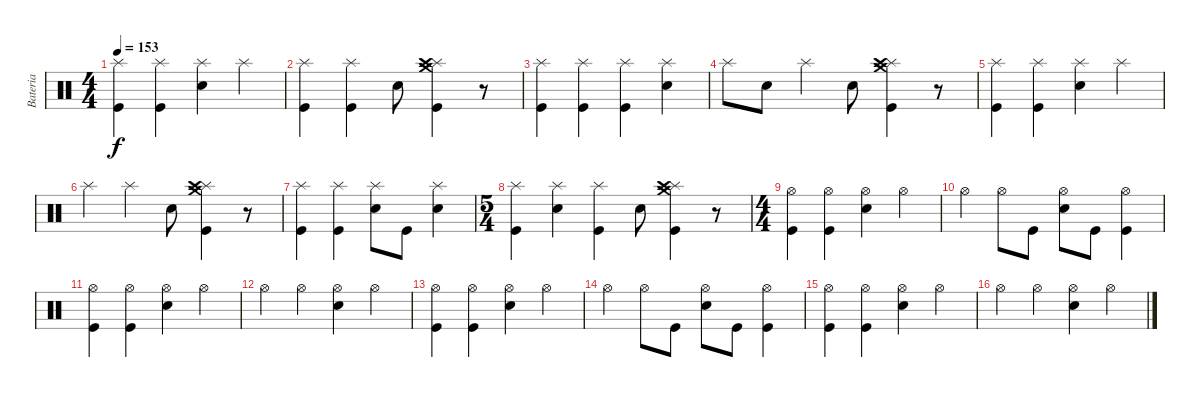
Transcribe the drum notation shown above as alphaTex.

\track ("Bateria" "Bateria") {instrument percussion}
\staff {score}
\articulation defaults
\ts (4 4)
\tempo 153
\clef neutral
\ks c
("Kick (hit)" "Splash (hit)").4{dy f} ("Kick (hit)" "Splash (hit)").4 ("Snare (hit) 2" "Splash (hit)").4 "Splash (hit)".4 |
("Splash (hit)" "Kick (hit)").4 ("Splash (hit)" "Kick (hit)").4 "Snare (hit) 2".8 ("Crash medium (hit)" "Splash (hit)" "Crash high (hit)" "Kick (hit)").4 r.8 |
("Kick (hit)" "Splash (hit)").4 ("Kick (hit)" "Splash (hit)").4 ("Kick (hit)" "Splash (hit)").4 ("Splash (hit)" "Snare (hit) 2").4 |
"Splash (hit)".8 "Snare (hit) 2".8 "Splash (hit)".4 "Snare (hit) 2".8 ("Crash medium (hit)" "Splash (hit)" "Crash high (hit)" "Kick (hit)").4 r.8 |
("Kick (hit)" "Splash (hit)").4 ("Kick (hit)" "Splash (hit)").4 ("Snare (hit) 2" "Splash (hit)").4 "Splash (hit)".4 |
"Splash (hit)".4 "Splash (hit)".4 "Snare (hit) 2".8 ("Crash medium (hit)" "Splash (hit)" "Crash high (hit)" "Kick (hit)").4 r.8 |
("Kick (hit)" "Splash (hit)").4 ("Kick (hit)" "Splash (hit)").4 ("Splash (hit)" "Snare (hit) 2").8 "Kick (hit)".8 ("Snare (hit) 2" "Splash (hit)").4 |
\ts (5 4)
("Splash (hit)" "Kick (hit)").4 ("Splash (hit)" "Snare (hit) 2").4 ("Splash (hit)" "Kick (hit)").4 "Snare (hit) 2".8 ("Crash medium (hit)" "Splash (hit)" "Crash high (hit)" "Kick (hit)").4 r.8 |
\ts (4 4)
("Kick (hit)" "Hi-Hat (open)").4 ("Kick (hit)" "Hi-Hat (open)").4 ("Snare (hit) 2" "Hi-Hat (open)").4 "Hi-Hat (open)".4 |
"Hi-Hat (open)".4 "Hi-Hat (open)".8 "Kick (hit)".8 ("Snare (hit) 2" "Hi-Hat (open)").8 "Kick (hit)".8 ("Kick (hit)" "Hi-Hat (open)").4 |
("Kick (hit)" "Hi-Hat (open)").4 ("Kick (hit)" "Hi-Hat (open)").4 ("Snare (hit) 2" "Hi-Hat (open)").4 "Hi-Hat (open)".4 |
"Hi-Hat (open)".4 "Hi-Hat (open)".4 ("Snare (hit) 2" "Hi-Hat (open)").4 "Hi-Hat (open)".4 |
("Kick (hit)" "Hi-Hat (open)").4 ("Kick (hit)" "Hi-Hat (open)").4 ("Snare (hit) 2" "Hi-Hat (open)").4 "Hi-Hat (open)".4 |
"Hi-Hat (open)".4 "Hi-Hat (open)".8 "Kick (hit)".8 ("Snare (hit) 2" "Hi-Hat (open)").8 "Kick (hit)".8 ("Kick (hit)" "Hi-Hat (open)").4 |
("Kick (hit)" "Hi-Hat (open)").4 ("Kick (hit)" "Hi-Hat (open)").4 ("Snare (hit) 2" "Hi-Hat (open)").4 "Hi-Hat (open)".4 |
"Hi-Hat (open)".4 "Hi-Hat (open)".4 ("Snare (hit) 2" "Hi-Hat (open)").4 "Hi-Hat (open)".4
